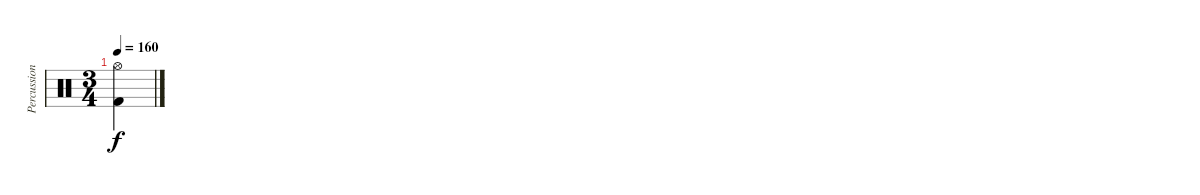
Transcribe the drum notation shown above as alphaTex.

\track ("Percussion" "Percussion") {instrument percussion}
\staff {score}
\articulation defaults
\ts (3 4)
\tempo 160
\clef neutral
\ks c
("Hi-Hat (open)" "Kick (hit) 2").4{dy f}
